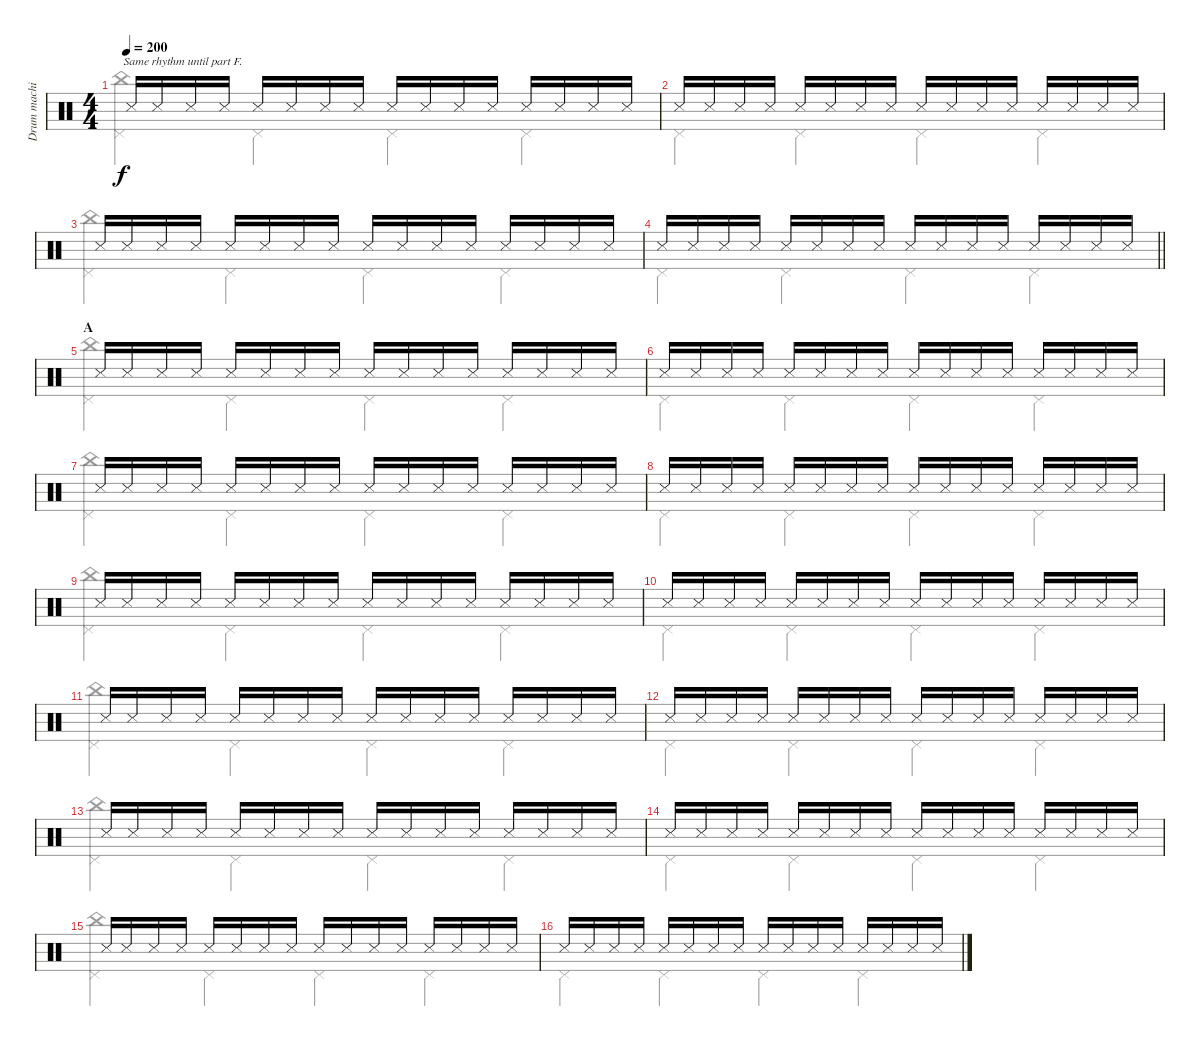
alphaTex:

\track ("Drum machine" "Drum machi") {instrument percussion}
\staff {score}
\articulation defaults
\voice
\ts (4 4)
\tempo 200
\clef neutral
\ks c "Snare (side stick) 3".16{txt "Same rhythm until part F." dy f beam Up} "Snare (side stick) 3".16{beam Up} "Snare (side stick) 3".16{beam Up} "Snare (side stick) 3".16{beam Up} "Snare (side stick) 3".16{beam Up} "Snare (side stick) 3".16{beam Up} "Snare (side stick) 3".16{beam Up} "Snare (side stick) 3".16{beam Up} "Snare (side stick) 3".16{beam Up} "Snare (side stick) 3".16{beam Up} "Snare (side stick) 3".16{beam Up} "Snare (side stick) 3".16{beam Up} "Snare (side stick) 3".16{beam Up} "Snare (side stick) 3".16{beam Up} "Snare (side stick) 3".16{beam Up} "Snare (side stick) 3".16{beam Up}
|
"Snare (side stick) 3".16{beam Up} "Snare (side stick) 3".16{beam Up} "Snare (side stick) 3".16{beam Up} "Snare (side stick) 3".16{beam Up} "Snare (side stick) 3".16{beam Up} "Snare (side stick) 3".16{beam Up} "Snare (side stick) 3".16{beam Up} "Snare (side stick) 3".16{beam Up} "Snare (side stick) 3".16{beam Up} "Snare (side stick) 3".16{beam Up} "Snare (side stick) 3".16{beam Up} "Snare (side stick) 3".16{beam Up} "Snare (side stick) 3".16{beam Up} "Snare (side stick) 3".16{beam Up} "Snare (side stick) 3".16{beam Up} "Snare (side stick) 3".16{beam Up} |
"Snare (side stick) 3".16{beam Up} "Snare (side stick) 3".16{beam Up} "Snare (side stick) 3".16{beam Up} "Snare (side stick) 3".16{beam Up} "Snare (side stick) 3".16{beam Up} "Snare (side stick) 3".16{beam Up} "Snare (side stick) 3".16{beam Up} "Snare (side stick) 3".16{beam Up} "Snare (side stick) 3".16{beam Up} "Snare (side stick) 3".16{beam Up} "Snare (side stick) 3".16{beam Up} "Snare (side stick) 3".16{beam Up} "Snare (side stick) 3".16{beam Up} "Snare (side stick) 3".16{beam Up} "Snare (side stick) 3".16{beam Up} "Snare (side stick) 3".16{beam Up} |
\barLineRight lightlight "Snare (side stick) 3".16{beam Up} "Snare (side stick) 3".16{beam Up} "Snare (side stick) 3".16{beam Up} "Snare (side stick) 3".16{beam Up} "Snare (side stick) 3".16{beam Up} "Snare (side stick) 3".16{beam Up} "Snare (side stick) 3".16{beam Up} "Snare (side stick) 3".16{beam Up} "Snare (side stick) 3".16{beam Up} "Snare (side stick) 3".16{beam Up} "Snare (side stick) 3".16{beam Up} "Snare (side stick) 3".16{beam Up} "Snare (side stick) 3".16{beam Up} "Snare (side stick) 3".16{beam Up} "Snare (side stick) 3".16{beam Up} "Snare (side stick) 3".16{beam Up}
|
\section ("" "A")
"Snare (side stick) 3".16{beam Up} "Snare (side stick) 3".16{beam Up} "Snare (side stick) 3".16{beam Up} "Snare (side stick) 3".16{beam Up} "Snare (side stick) 3".16{beam Up} "Snare (side stick) 3".16{beam Up} "Snare (side stick) 3".16{beam Up} "Snare (side stick) 3".16{beam Up} "Snare (side stick) 3".16{beam Up} "Snare (side stick) 3".16{beam Up} "Snare (side stick) 3".16{beam Up} "Snare (side stick) 3".16{beam Up} "Snare (side stick) 3".16{beam Up} "Snare (side stick) 3".16{beam Up} "Snare (side stick) 3".16{beam Up} "Snare (side stick) 3".16{beam Up} |
"Snare (side stick) 3".16{beam Up} "Snare (side stick) 3".16{beam Up} "Snare (side stick) 3".16{beam Up} "Snare (side stick) 3".16{beam Up} "Snare (side stick) 3".16{beam Up} "Snare (side stick) 3".16{beam Up} "Snare (side stick) 3".16{beam Up} "Snare (side stick) 3".16{beam Up} "Snare (side stick) 3".16{beam Up} "Snare (side stick) 3".16{beam Up} "Snare (side stick) 3".16{beam Up} "Snare (side stick) 3".16{beam Up} "Snare (side stick) 3".16{beam Up} "Snare (side stick) 3".16{beam Up} "Snare (side stick) 3".16{beam Up} "Snare (side stick) 3".16{beam Up} |
"Snare (side stick) 3".16{beam Up} "Snare (side stick) 3".16{beam Up} "Snare (side stick) 3".16{beam Up} "Snare (side stick) 3".16{beam Up} "Snare (side stick) 3".16{beam Up} "Snare (side stick) 3".16{beam Up} "Snare (side stick) 3".16{beam Up} "Snare (side stick) 3".16{beam Up} "Snare (side stick) 3".16{beam Up} "Snare (side stick) 3".16{beam Up} "Snare (side stick) 3".16{beam Up} "Snare (side stick) 3".16{beam Up} "Snare (side stick) 3".16{beam Up} "Snare (side stick) 3".16{beam Up} "Snare (side stick) 3".16{beam Up} "Snare (side stick) 3".16{beam Up} |
"Snare (side stick) 3".16{beam Up} "Snare (side stick) 3".16{beam Up} "Snare (side stick) 3".16{beam Up} "Snare (side stick) 3".16{beam Up} "Snare (side stick) 3".16{beam Up} "Snare (side stick) 3".16{beam Up} "Snare (side stick) 3".16{beam Up} "Snare (side stick) 3".16{beam Up} "Snare (side stick) 3".16{beam Up} "Snare (side stick) 3".16{beam Up} "Snare (side stick) 3".16{beam Up} "Snare (side stick) 3".16{beam Up} "Snare (side stick) 3".16{beam Up} "Snare (side stick) 3".16{beam Up} "Snare (side stick) 3".16{beam Up} "Snare (side stick) 3".16{beam Up} |
"Snare (side stick) 3".16{beam Up} "Snare (side stick) 3".16{beam Up} "Snare (side stick) 3".16{beam Up} "Snare (side stick) 3".16{beam Up} "Snare (side stick) 3".16{beam Up} "Snare (side stick) 3".16{beam Up} "Snare (side stick) 3".16{beam Up} "Snare (side stick) 3".16{beam Up} "Snare (side stick) 3".16{beam Up} "Snare (side stick) 3".16{beam Up} "Snare (side stick) 3".16{beam Up} "Snare (side stick) 3".16{beam Up} "Snare (side stick) 3".16{beam Up} "Snare (side stick) 3".16{beam Up} "Snare (side stick) 3".16{beam Up} "Snare (side stick) 3".16{beam Up} |
"Snare (side stick) 3".16{beam Up} "Snare (side stick) 3".16{beam Up} "Snare (side stick) 3".16{beam Up} "Snare (side stick) 3".16{beam Up} "Snare (side stick) 3".16{beam Up} "Snare (side stick) 3".16{beam Up} "Snare (side stick) 3".16{beam Up} "Snare (side stick) 3".16{beam Up} "Snare (side stick) 3".16{beam Up} "Snare (side stick) 3".16{beam Up} "Snare (side stick) 3".16{beam Up} "Snare (side stick) 3".16{beam Up} "Snare (side stick) 3".16{beam Up} "Snare (side stick) 3".16{beam Up} "Snare (side stick) 3".16{beam Up} "Snare (side stick) 3".16{beam Up} |
"Snare (side stick) 3".16{beam Up} "Snare (side stick) 3".16{beam Up} "Snare (side stick) 3".16{beam Up} "Snare (side stick) 3".16{beam Up} "Snare (side stick) 3".16{beam Up} "Snare (side stick) 3".16{beam Up} "Snare (side stick) 3".16{beam Up} "Snare (side stick) 3".16{beam Up} "Snare (side stick) 3".16{beam Up} "Snare (side stick) 3".16{beam Up} "Snare (side stick) 3".16{beam Up} "Snare (side stick) 3".16{beam Up} "Snare (side stick) 3".16{beam Up} "Snare (side stick) 3".16{beam Up} "Snare (side stick) 3".16{beam Up} "Snare (side stick) 3".16{beam Up} |
"Snare (side stick) 3".16{beam Up} "Snare (side stick) 3".16{beam Up} "Snare (side stick) 3".16{beam Up} "Snare (side stick) 3".16{beam Up} "Snare (side stick) 3".16{beam Up} "Snare (side stick) 3".16{beam Up} "Snare (side stick) 3".16{beam Up} "Snare (side stick) 3".16{beam Up} "Snare (side stick) 3".16{beam Up} "Snare (side stick) 3".16{beam Up} "Snare (side stick) 3".16{beam Up} "Snare (side stick) 3".16{beam Up} "Snare (side stick) 3".16{beam Up} "Snare (side stick) 3".16{beam Up} "Snare (side stick) 3".16{beam Up} "Snare (side stick) 3".16{beam Up} |
"Snare (side stick) 3".16{beam Up} "Snare (side stick) 3".16{beam Up} "Snare (side stick) 3".16{beam Up} "Snare (side stick) 3".16{beam Up} "Snare (side stick) 3".16{beam Up} "Snare (side stick) 3".16{beam Up} "Snare (side stick) 3".16{beam Up} "Snare (side stick) 3".16{beam Up} "Snare (side stick) 3".16{beam Up} "Snare (side stick) 3".16{beam Up} "Snare (side stick) 3".16{beam Up} "Snare (side stick) 3".16{beam Up} "Snare (side stick) 3".16{beam Up} "Snare (side stick) 3".16{beam Up} "Snare (side stick) 3".16{beam Up} "Snare (side stick) 3".16{beam Up} |
"Snare (side stick) 3".16{beam Up} "Snare (side stick) 3".16{beam Up} "Snare (side stick) 3".16{beam Up} "Snare (side stick) 3".16{beam Up} "Snare (side stick) 3".16{beam Up} "Snare (side stick) 3".16{beam Up} "Snare (side stick) 3".16{beam Up} "Snare (side stick) 3".16{beam Up} "Snare (side stick) 3".16{beam Up} "Snare (side stick) 3".16{beam Up} "Snare (side stick) 3".16{beam Up} "Snare (side stick) 3".16{beam Up} "Snare (side stick) 3".16{beam Up} "Snare (side stick) 3".16{beam Up} "Snare (side stick) 3".16{beam Up} "Snare (side stick) 3".16{beam Up} |
"Snare (side stick) 3".16{beam Up} "Snare (side stick) 3".16{beam Up} "Snare (side stick) 3".16{beam Up} "Snare (side stick) 3".16{beam Up} "Snare (side stick) 3".16{beam Up} "Snare (side stick) 3".16{beam Up} "Snare (side stick) 3".16{beam Up} "Snare (side stick) 3".16{beam Up} "Snare (side stick) 3".16{beam Up} "Snare (side stick) 3".16{beam Up} "Snare (side stick) 3".16{beam Up} "Snare (side stick) 3".16{beam Up} "Snare (side stick) 3".16{beam Up} "Snare (side stick) 3".16{beam Up} "Snare (side stick) 3".16{beam Up} "Snare (side stick) 3".16{beam Up} |
"Snare (side stick) 3".16{beam Up} "Snare (side stick) 3".16{beam Up} "Snare (side stick) 3".16{beam Up} "Snare (side stick) 3".16{beam Up} "Snare (side stick) 3".16{beam Up} "Snare (side stick) 3".16{beam Up} "Snare (side stick) 3".16{beam Up} "Snare (side stick) 3".16{beam Up} "Snare (side stick) 3".16{beam Up} "Snare (side stick) 3".16{beam Up} "Snare (side stick) 3".16{beam Up} "Snare (side stick) 3".16{beam Up} "Snare (side stick) 3".16{beam Up} "Snare (side stick) 3".16{beam Up} "Snare (side stick) 3".16{beam Up} "Snare (side stick) 3".16{beam Up}
\voice
\clef neutral
\ottava regular
\simile none
\ks c
("Pedal Hi-Hat (hit)" "China (hit)").4{dy f beam Down} "Pedal Hi-Hat (hit)".4{beam Down} "Pedal Hi-Hat (hit)".4{beam Down} "Pedal Hi-Hat (hit)".4{beam Down} |
"Pedal Hi-Hat (hit)".4{beam Down} "Pedal Hi-Hat (hit)".4{beam Down} "Pedal Hi-Hat (hit)".4{beam Down} "Pedal Hi-Hat (hit)".4{beam Down} |
("Pedal Hi-Hat (hit)" "China (hit)").4{beam Down} "Pedal Hi-Hat (hit)".4{beam Down} "Pedal Hi-Hat (hit)".4{beam Down} "Pedal Hi-Hat (hit)".4{beam Down} |
\barLineRight lightlight "Pedal Hi-Hat (hit)".4{beam Down} "Pedal Hi-Hat (hit)".4{beam Down} "Pedal Hi-Hat (hit)".4{beam Down} "Pedal Hi-Hat (hit)".4{beam Down}
|
("Pedal Hi-Hat (hit)" "China (hit)").4{beam Down} "Pedal Hi-Hat (hit)".4{beam Down} "Pedal Hi-Hat (hit)".4{beam Down} "Pedal Hi-Hat (hit)".4{beam Down} |
"Pedal Hi-Hat (hit)".4{beam Down} "Pedal Hi-Hat (hit)".4{beam Down} "Pedal Hi-Hat (hit)".4{beam Down} "Pedal Hi-Hat (hit)".4{beam Down} |
("Pedal Hi-Hat (hit)" "China (hit)").4{beam Down} "Pedal Hi-Hat (hit)".4{beam Down} "Pedal Hi-Hat (hit)".4{beam Down} "Pedal Hi-Hat (hit)".4{beam Down} |
"Pedal Hi-Hat (hit)".4{beam Down} "Pedal Hi-Hat (hit)".4{beam Down} "Pedal Hi-Hat (hit)".4{beam Down} "Pedal Hi-Hat (hit)".4{beam Down} |
("Pedal Hi-Hat (hit)" "China (hit)").4{beam Down} "Pedal Hi-Hat (hit)".4{beam Down} "Pedal Hi-Hat (hit)".4{beam Down} "Pedal Hi-Hat (hit)".4{beam Down} |
"Pedal Hi-Hat (hit)".4{beam Down} "Pedal Hi-Hat (hit)".4{beam Down} "Pedal Hi-Hat (hit)".4{beam Down} "Pedal Hi-Hat (hit)".4{beam Down} |
("Pedal Hi-Hat (hit)" "China (hit)").4{beam Down} "Pedal Hi-Hat (hit)".4{beam Down} "Pedal Hi-Hat (hit)".4{beam Down} "Pedal Hi-Hat (hit)".4{beam Down} |
"Pedal Hi-Hat (hit)".4{beam Down} "Pedal Hi-Hat (hit)".4{beam Down} "Pedal Hi-Hat (hit)".4{beam Down} "Pedal Hi-Hat (hit)".4{beam Down} |
("Pedal Hi-Hat (hit)" "China (hit)").4{beam Down} "Pedal Hi-Hat (hit)".4{beam Down} "Pedal Hi-Hat (hit)".4{beam Down} "Pedal Hi-Hat (hit)".4{beam Down} |
"Pedal Hi-Hat (hit)".4{beam Down} "Pedal Hi-Hat (hit)".4{beam Down} "Pedal Hi-Hat (hit)".4{beam Down} "Pedal Hi-Hat (hit)".4{beam Down} |
("Pedal Hi-Hat (hit)" "China (hit)").4{beam Down} "Pedal Hi-Hat (hit)".4{beam Down} "Pedal Hi-Hat (hit)".4{beam Down} "Pedal Hi-Hat (hit)".4{beam Down} |
"Pedal Hi-Hat (hit)".4{beam Down} "Pedal Hi-Hat (hit)".4{beam Down} "Pedal Hi-Hat (hit)".4{beam Down} "Pedal Hi-Hat (hit)".4{beam Down}
